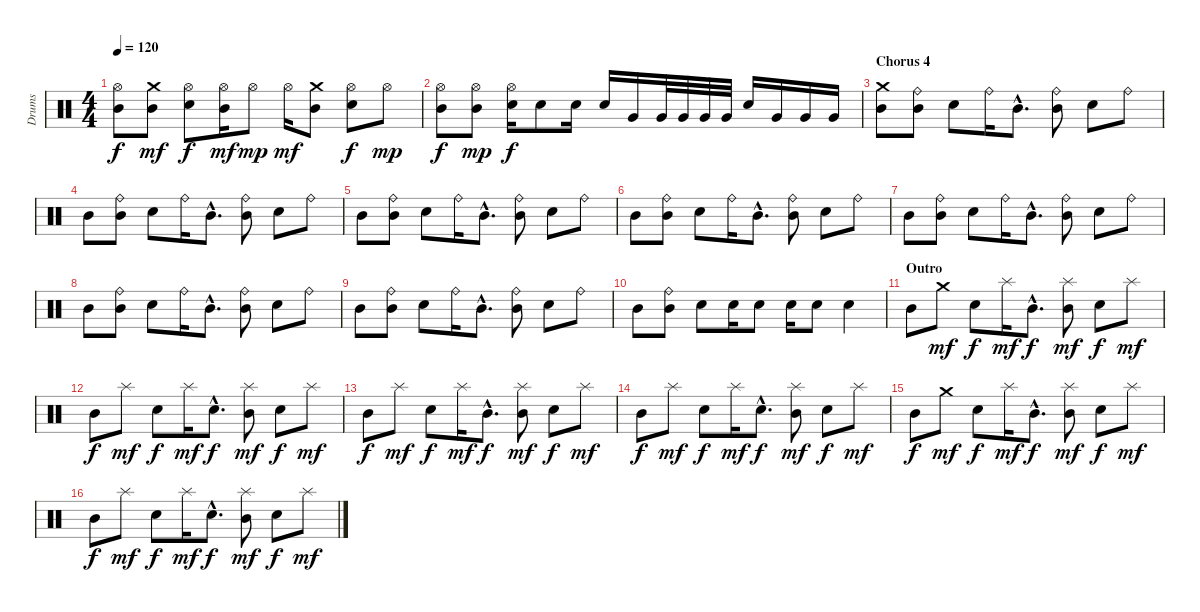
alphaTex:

\track ("Drums" "Drums") {instrument percussion}
\staff {score}
\articulation defaults
\ts (4 4)
\tempo 120
\clef neutral
\ks c
("Hi-Hat (open)" "Mid Tom (hit)").8{dy f} ("Crash medium (hit)" "Mid Tom (hit)").8{dy mf} ("Hi-Hat (open)" "Electric Snare (hit)").8{dy f} ("Hi-Hat (open)" "Mid Tom (hit)").16{dy mf} "Hi-Hat (open)".8{dy mp} "Hi-Hat (open)".16{dy mf} ("Crash medium (hit)" "Mid Tom (hit)").8 ("Hi-Hat (open)" "Electric Snare (hit)").8{dy f} "Hi-Hat (open)".8{dy mp} |
("Hi-Hat (open)" "Mid Tom (hit)").8{dy f} ("Hi-Hat (open)" "Mid Tom (hit)").8{dy mp} ("Hi-Hat (open)" "Electric Snare (hit)").16{dy f} "Electric Snare (hit)".8 "Electric Snare (hit)".16 "Electric Snare (hit)".16 "Very Low Tom (hit)".16 "Very Low Tom (hit)".32 "Very Low Tom (hit)".32 "Very Low Tom (hit)".32 "Very Low Tom (hit)".32 "Electric Snare (hit)".16 "Very Low Tom (hit)".16 "Very Low Tom (hit)".16 "Very Low Tom (hit)".16 |
\section ("" "Chorus 4")
("Crash medium (hit)" "Mid Tom (hit)").8 ("Ride (bell)" "Mid Tom (hit)").8 "Electric Snare (hit)".8 "Ride (bell)".16 "Mid Tom (hit)"{hac}.8{d} ("Ride (bell)" "Mid Tom (hit)").8 "Electric Snare (hit)".8 "Ride (bell)".8 |
"Mid Tom (hit)".8 ("Ride (bell)" "Mid Tom (hit)").8 "Electric Snare (hit)".8 "Ride (bell)".16 "Mid Tom (hit)"{hac}.8{d} ("Ride (bell)" "Mid Tom (hit)").8 "Electric Snare (hit)".8 "Ride (bell)".8 |
"Mid Tom (hit)".8 ("Ride (bell)" "Mid Tom (hit)").8 "Electric Snare (hit)".8 "Ride (bell)".16 "Mid Tom (hit)"{hac}.8{d} ("Ride (bell)" "Mid Tom (hit)").8 "Electric Snare (hit)".8 "Ride (bell)".8 |
"Mid Tom (hit)".8 ("Ride (bell)" "Mid Tom (hit)").8 "Electric Snare (hit)".8 "Ride (bell)".16 "Mid Tom (hit)"{hac}.8{d} ("Ride (bell)" "Mid Tom (hit)").8 "Electric Snare (hit)".8 "Ride (bell)".8 |
"Mid Tom (hit)".8 ("Ride (bell)" "Mid Tom (hit)").8 "Electric Snare (hit)".8 "Ride (bell)".16 "Mid Tom (hit)"{hac}.8{d} ("Ride (bell)" "Mid Tom (hit)").8 "Electric Snare (hit)".8 "Ride (bell)".8 |
"Mid Tom (hit)".8 ("Ride (bell)" "Mid Tom (hit)").8 "Electric Snare (hit)".8 "Ride (bell)".16 "Mid Tom (hit)"{hac}.8{d} ("Ride (bell)" "Mid Tom (hit)").8 "Electric Snare (hit)".8 "Ride (bell)".8 |
"Mid Tom (hit)".8 ("Ride (bell)" "Mid Tom (hit)").8 "Electric Snare (hit)".8 "Ride (bell)".16 "Mid Tom (hit)"{hac}.8{d} ("Ride (bell)" "Mid Tom (hit)").8 "Electric Snare (hit)".8 "Ride (bell)".8 |
"Mid Tom (hit)".8 ("Ride (bell)" "Mid Tom (hit)").8 "Electric Snare (hit)".8 "Electric Snare (hit)".16 "Electric Snare (hit)".8 "Electric Snare (hit)".16 "Electric Snare (hit)".8 "Electric Snare (hit)".4 |
\section ("" "Outro")
"Mid Tom (hit)".8 "Crash medium (hit)".8{dy mf} "Electric Snare (hit)".8{dy f} "Splash (hit)".16{dy mf} "Mid Tom (hit)"{hac}.8{d dy f} ("Splash (hit)" "Mid Tom (hit)").8{dy mf} "Electric Snare (hit)".8{dy f} "Splash (hit)".8{dy mf} |
"Mid Tom (hit)".8{dy f} "Splash (hit)".8{dy mf} "Electric Snare (hit)".8{dy f} "Splash (hit)".16{dy mf} "Electric Snare (hit)"{hac}.8{d dy f} ("Splash (hit)" "Mid Tom (hit)").8{dy mf} "Electric Snare (hit)".8{dy f} "Splash (hit)".8{dy mf} |
"Mid Tom (hit)".8{dy f} "Splash (hit)".8{dy mf} "Electric Snare (hit)".8{dy f} "Splash (hit)".16{dy mf} "Mid Tom (hit)"{hac}.8{d dy f} ("Splash (hit)" "Mid Tom (hit)").8{dy mf} "Electric Snare (hit)".8{dy f} "Splash (hit)".8{dy mf} |
"Mid Tom (hit)".8{dy f} "Splash (hit)".8{dy mf} "Electric Snare (hit)".8{dy f} "Splash (hit)".16{dy mf} "Electric Snare (hit)"{hac}.8{d dy f} ("Splash (hit)" "Mid Tom (hit)").8{dy mf} "Electric Snare (hit)".8{dy f} "Splash (hit)".8{dy mf} |
"Mid Tom (hit)".8{dy f} "Crash medium (hit)".8{dy mf} "Electric Snare (hit)".8{dy f} "Splash (hit)".16{dy mf} "Mid Tom (hit)"{hac}.8{d dy f} ("Splash (hit)" "Mid Tom (hit)").8{dy mf} "Electric Snare (hit)".8{dy f} "Splash (hit)".8{dy mf} |
"Mid Tom (hit)".8{dy f} "Splash (hit)".8{dy mf} "Electric Snare (hit)".8{dy f} "Splash (hit)".16{dy mf} "Electric Snare (hit)"{hac}.8{d dy f} ("Splash (hit)" "Mid Tom (hit)").8{dy mf} "Electric Snare (hit)".8{dy f} "Splash (hit)".8{dy mf}
